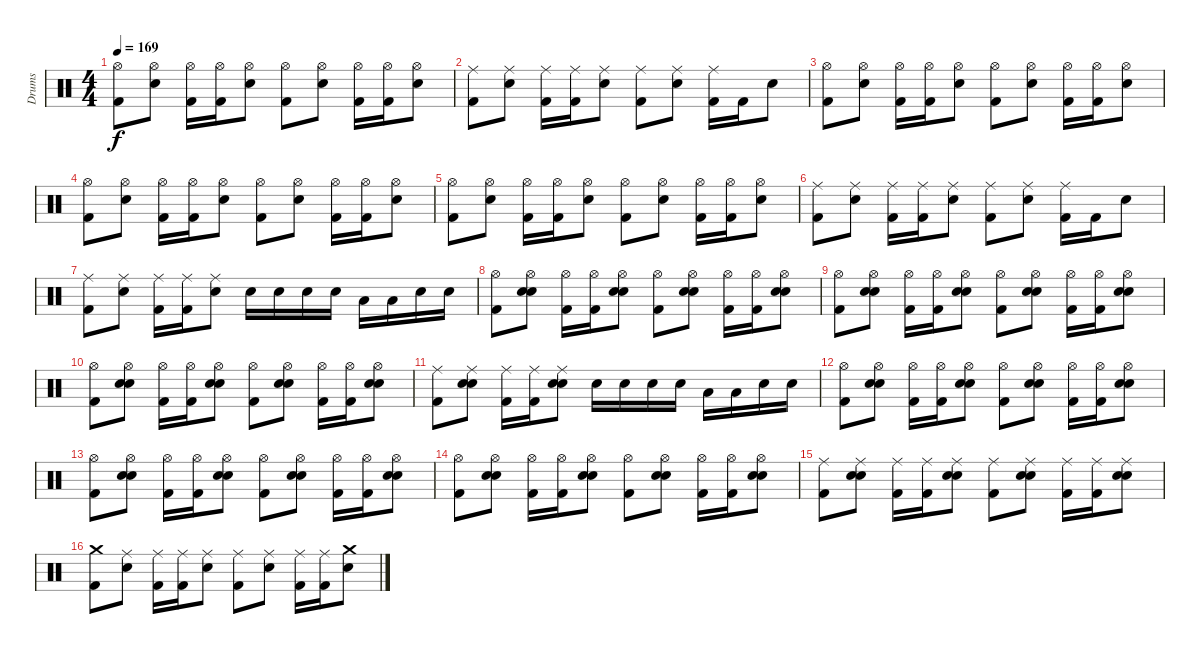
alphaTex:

\track ("Drums" "Drums") {instrument percussion}
\staff {score}
\articulation defaults
\ts (4 4)
\tempo 169
\clef neutral
\ks c
("Hi-Hat (open)" "Kick (hit) 2").8{dy f} ("Hi-Hat (open)" "Electric Snare (hit)").8 ("Hi-Hat (open)" "Kick (hit) 2").16 ("Hi-Hat (open)" "Kick (hit) 2").16 ("Hi-Hat (open)" "Electric Snare (hit)").8 ("Hi-Hat (open)" "Kick (hit) 2").8 ("Hi-Hat (open)" "Electric Snare (hit)").8 ("Hi-Hat (open)" "Kick (hit) 2").16 ("Hi-Hat (open)" "Kick (hit) 2").16 ("Hi-Hat (open)" "Electric Snare (hit)").8 |
("Ride (middle)" "Kick (hit) 2").8 ("Ride (middle)" "Electric Snare (hit)").8 ("Ride (middle)" "Kick (hit) 2").16 ("Ride (middle)" "Kick (hit) 2").16 ("Ride (middle)" "Electric Snare (hit)").8 ("Ride (middle)" "Kick (hit) 2").8 ("Ride (middle)" "Electric Snare (hit)").8 ("Ride (middle)" "Kick (hit) 2").16 "Kick (hit) 2".16 "Electric Snare (hit)".8 |
("Hi-Hat (open)" "Kick (hit) 2").8 ("Hi-Hat (open)" "Electric Snare (hit)").8 ("Hi-Hat (open)" "Kick (hit) 2").16 ("Hi-Hat (open)" "Kick (hit) 2").16 ("Hi-Hat (open)" "Electric Snare (hit)").8 ("Hi-Hat (open)" "Kick (hit) 2").8 ("Hi-Hat (open)" "Electric Snare (hit)").8 ("Hi-Hat (open)" "Kick (hit) 2").16 ("Hi-Hat (open)" "Kick (hit) 2").16 ("Hi-Hat (open)" "Electric Snare (hit)").8 |
("Hi-Hat (open)" "Kick (hit) 2").8 ("Hi-Hat (open)" "Electric Snare (hit)").8 ("Hi-Hat (open)" "Kick (hit) 2").16 ("Hi-Hat (open)" "Kick (hit) 2").16 ("Hi-Hat (open)" "Electric Snare (hit)").8 ("Hi-Hat (open)" "Kick (hit) 2").8 ("Hi-Hat (open)" "Electric Snare (hit)").8 ("Hi-Hat (open)" "Kick (hit) 2").16 ("Hi-Hat (open)" "Kick (hit) 2").16 ("Hi-Hat (open)" "Electric Snare (hit)").8 |
("Hi-Hat (open)" "Kick (hit) 2").8 ("Hi-Hat (open)" "Electric Snare (hit)").8 ("Hi-Hat (open)" "Kick (hit) 2").16 ("Hi-Hat (open)" "Kick (hit) 2").16 ("Hi-Hat (open)" "Electric Snare (hit)").8 ("Hi-Hat (open)" "Kick (hit) 2").8 ("Hi-Hat (open)" "Electric Snare (hit)").8 ("Hi-Hat (open)" "Kick (hit) 2").16 ("Hi-Hat (open)" "Kick (hit) 2").16 ("Hi-Hat (open)" "Electric Snare (hit)").8 |
("Ride (middle)" "Kick (hit) 2").8 ("Ride (middle)" "Electric Snare (hit)").8 ("Ride (middle)" "Kick (hit) 2").16 ("Ride (middle)" "Kick (hit) 2").16 ("Ride (middle)" "Electric Snare (hit)").8 ("Ride (middle)" "Kick (hit) 2").8 ("Ride (middle)" "Electric Snare (hit)").8 ("Ride (middle)" "Kick (hit) 2").16 "Kick (hit) 2".16 "Electric Snare (hit)".8 |
("Ride (middle)" "Kick (hit) 2").8 ("Ride (middle)" "Electric Snare (hit)").8 ("Ride (middle)" "Kick (hit) 2").16 ("Ride (middle)" "Kick (hit) 2").16 ("Ride (middle)" "Electric Snare (hit)").8 "Electric Snare (hit)".16 "Electric Snare (hit)".16 "Electric Snare (hit)".16 "Electric Snare (hit)".16 "Low Tom (hit)".16 "Low Tom (hit)".16 "Electric Snare (hit)".16 "Electric Snare (hit)".16 |
("Hi-Hat (open)" "Kick (hit) 2").8 ("Hand Clap (hit)" "Hi-Hat (open)" "Electric Snare (hit)").8 ("Hi-Hat (open)" "Kick (hit) 2").16 ("Hi-Hat (open)" "Kick (hit) 2").16 ("Hand Clap (hit)" "Hi-Hat (open)" "Electric Snare (hit)").8 ("Hi-Hat (open)" "Kick (hit) 2").8 ("Hand Clap (hit)" "Hi-Hat (open)" "Electric Snare (hit)").8 ("Hi-Hat (open)" "Kick (hit) 2").16 ("Hi-Hat (open)" "Kick (hit) 2").16 ("Hand Clap (hit)" "Hi-Hat (open)" "Electric Snare (hit)").8 |
("Hi-Hat (open)" "Kick (hit) 2").8 ("Hand Clap (hit)" "Hi-Hat (open)" "Electric Snare (hit)").8 ("Hi-Hat (open)" "Kick (hit) 2").16 ("Hi-Hat (open)" "Kick (hit) 2").16 ("Hand Clap (hit)" "Hi-Hat (open)" "Electric Snare (hit)").8 ("Hi-Hat (open)" "Kick (hit) 2").8 ("Hand Clap (hit)" "Hi-Hat (open)" "Electric Snare (hit)").8 ("Hi-Hat (open)" "Kick (hit) 2").16 ("Hi-Hat (open)" "Kick (hit) 2").16 ("Hand Clap (hit)" "Hi-Hat (open)" "Electric Snare (hit)").8 |
("Hi-Hat (open)" "Kick (hit) 2").8 ("Hand Clap (hit)" "Hi-Hat (open)" "Electric Snare (hit)").8 ("Hi-Hat (open)" "Kick (hit) 2").16 ("Hi-Hat (open)" "Kick (hit) 2").16 ("Hand Clap (hit)" "Hi-Hat (open)" "Electric Snare (hit)").8 ("Hi-Hat (open)" "Kick (hit) 2").8 ("Hand Clap (hit)" "Hi-Hat (open)" "Electric Snare (hit)").8 ("Hi-Hat (open)" "Kick (hit) 2").16 ("Hi-Hat (open)" "Kick (hit) 2").16 ("Hand Clap (hit)" "Hi-Hat (open)" "Electric Snare (hit)").8 |
("Ride (middle)" "Kick (hit) 2").8 ("Hand Clap (hit)" "Ride (middle)" "Electric Snare (hit)").8 ("Ride (middle)" "Kick (hit) 2").16 ("Ride (middle)" "Kick (hit) 2").16 ("Hand Clap (hit)" "Ride (middle)" "Electric Snare (hit)").8 "Electric Snare (hit)".16 "Electric Snare (hit)".16 "Electric Snare (hit)".16 "Electric Snare (hit)".16 "Low Tom (hit)".16 "Low Tom (hit)".16 "Electric Snare (hit)".16 "Electric Snare (hit)".16 |
("Hi-Hat (open)" "Kick (hit) 2").8 ("Hand Clap (hit)" "Hi-Hat (open)" "Electric Snare (hit)").8 ("Hi-Hat (open)" "Kick (hit) 2").16 ("Hi-Hat (open)" "Kick (hit) 2").16 ("Hand Clap (hit)" "Hi-Hat (open)" "Electric Snare (hit)").8 ("Hi-Hat (open)" "Kick (hit) 2").8 ("Hand Clap (hit)" "Hi-Hat (open)" "Electric Snare (hit)").8 ("Hi-Hat (open)" "Kick (hit) 2").16 ("Hi-Hat (open)" "Kick (hit) 2").16 ("Hand Clap (hit)" "Hi-Hat (open)" "Electric Snare (hit)").8 |
("Hi-Hat (open)" "Kick (hit) 2").8 ("Hand Clap (hit)" "Hi-Hat (open)" "Electric Snare (hit)").8 ("Hi-Hat (open)" "Kick (hit) 2").16 ("Hi-Hat (open)" "Kick (hit) 2").16 ("Hand Clap (hit)" "Hi-Hat (open)" "Electric Snare (hit)").8 ("Hi-Hat (open)" "Kick (hit) 2").8 ("Hand Clap (hit)" "Hi-Hat (open)" "Electric Snare (hit)").8 ("Hi-Hat (open)" "Kick (hit) 2").16 ("Hi-Hat (open)" "Kick (hit) 2").16 ("Hand Clap (hit)" "Hi-Hat (open)" "Electric Snare (hit)").8 |
("Hi-Hat (open)" "Kick (hit) 2").8 ("Hand Clap (hit)" "Hi-Hat (open)" "Electric Snare (hit)").8 ("Hi-Hat (open)" "Kick (hit) 2").16 ("Hi-Hat (open)" "Kick (hit) 2").16 ("Hand Clap (hit)" "Hi-Hat (open)" "Electric Snare (hit)").8 ("Hi-Hat (open)" "Kick (hit) 2").8 ("Hand Clap (hit)" "Hi-Hat (open)" "Electric Snare (hit)").8 ("Hi-Hat (open)" "Kick (hit) 2").16 ("Hi-Hat (open)" "Kick (hit) 2").16 ("Hand Clap (hit)" "Hi-Hat (open)" "Electric Snare (hit)").8 |
("Ride (middle)" "Kick (hit) 2").8 ("Hand Clap (hit)" "Ride (middle)" "Electric Snare (hit)").8 ("Ride (middle)" "Kick (hit) 2").16 ("Ride (middle)" "Kick (hit) 2").16 ("Hand Clap (hit)" "Ride (middle)" "Electric Snare (hit)").8 ("Ride (middle)" "Kick (hit) 2").8 ("Hand Clap (hit)" "Ride (middle)" "Electric Snare (hit)").8 ("Ride (middle)" "Kick (hit) 2").16 ("Ride (middle)" "Kick (hit) 2").16 ("Hand Clap (hit)" "Ride (middle)" "Electric Snare (hit)").8 |
("Crash medium (hit)" "Kick (hit) 2").8 ("Ride (middle)" "Electric Snare (hit)").8 ("Ride (middle)" "Kick (hit) 2").16 ("Ride (middle)" "Kick (hit) 2").16 ("Ride (middle)" "Electric Snare (hit)").8 ("Ride (middle)" "Kick (hit) 2").8 ("Ride (middle)" "Electric Snare (hit)").8 ("Ride (middle)" "Kick (hit) 2").16 ("Ride (middle)" "Kick (hit) 2").16 ("Crash medium (hit)" "Electric Snare (hit)").8
